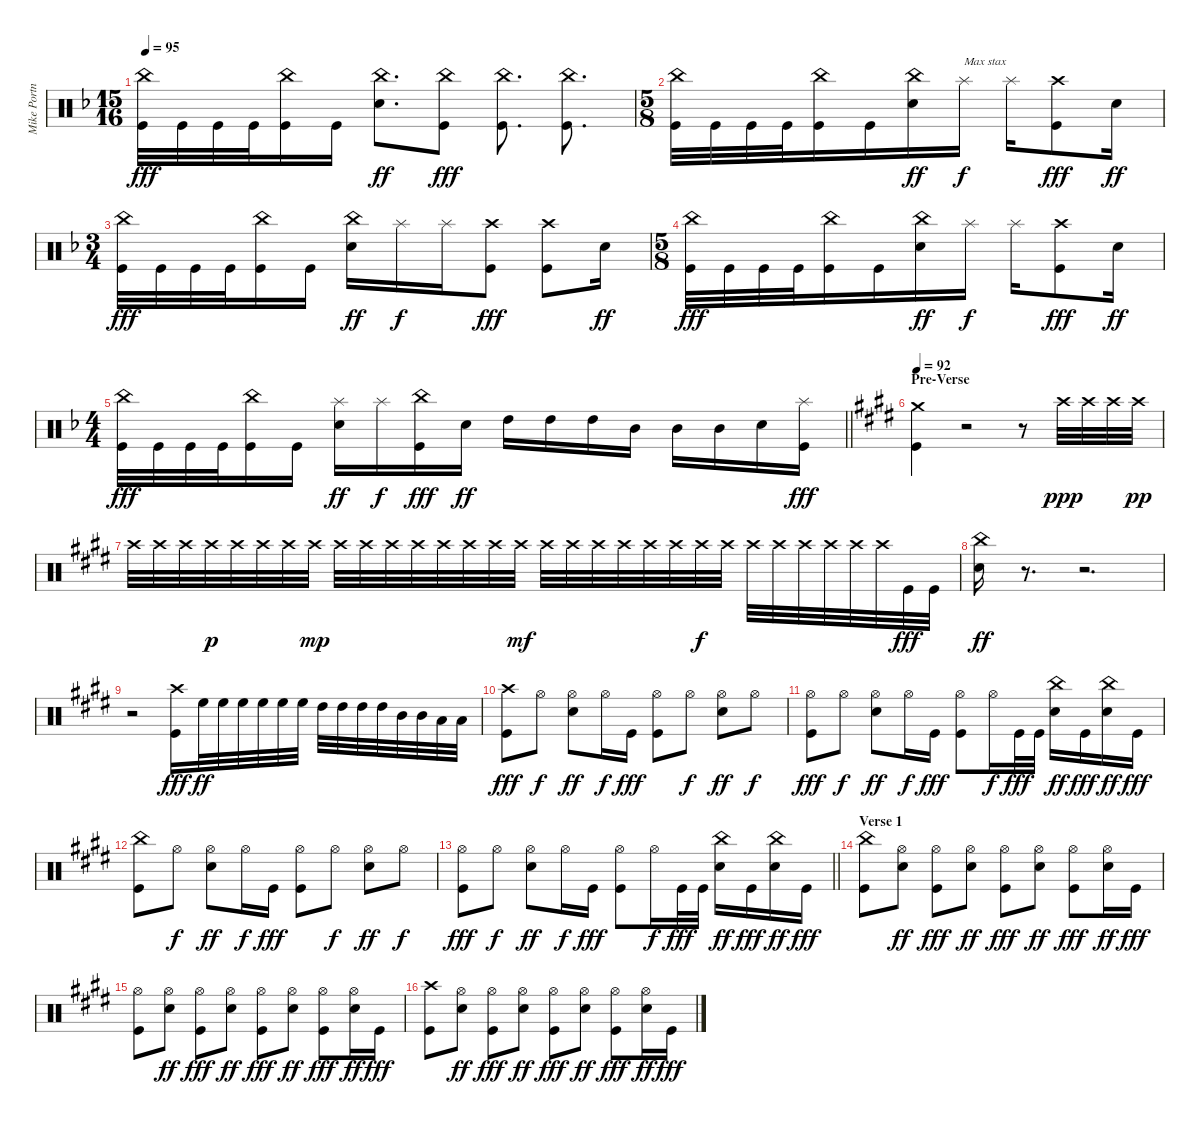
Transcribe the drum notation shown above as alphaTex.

\track ("Mike Portnoy" "Mike Portn") {instrument percussion}
\staff {score}
\articulation defaults
\ts (15 16)
\tempo 95
\clef neutral
\ks f
("China (hit)" "Kick (hit)").32{dy fff} "Kick (hit)".32 "Kick (hit)".32 "Kick (hit)".32 ("China (hit)" "Kick (hit)").16 "Kick (hit)".16 ("China (hit)" "Electric Snare (hit)").8{d dy ff} ("China (hit)" "Kick (hit)").8{dy fff} ("China (hit)" "Kick (hit)").8{d} ("China (hit)" "Kick (hit)").8{d} |
\ts (5 8)
("China (hit)" "Kick (hit)").32 "Kick (hit)".32 "Kick (hit)".32 "Kick (hit)".32 ("China (hit)" "Kick (hit)").16 "Kick (hit)".16 ("China (hit)" "Electric Snare (hit)").16{dy ff} "Splash (hit)".16{txt "Max stax" dy f} "Splash (hit)".16 ("Crash high (hit)" "Kick (hit)").8{dy fff} "Electric Snare (hit)".16{dy ff} |
\ts (3 4)
("China (hit)" "Kick (hit)").32{dy fff} "Kick (hit)".32 "Kick (hit)".32 "Kick (hit)".32 ("China (hit)" "Kick (hit)").16 "Kick (hit)".16 ("China (hit)" "Electric Snare (hit)").16{dy ff} "Splash (hit)".16{dy f} "Splash (hit)".16 ("Crash high (hit)" "Kick (hit)").8{dy fff} ("Crash high (hit)" "Kick (hit)").8 "Electric Snare (hit)".16{dy ff} |
\ts (5 8)
("China (hit)" "Kick (hit)").32{dy fff} "Kick (hit)".32 "Kick (hit)".32 "Kick (hit)".32 ("China (hit)" "Kick (hit)").16 "Kick (hit)".16 ("China (hit)" "Electric Snare (hit)").16{dy ff} "Splash (hit)".16{dy f} "Splash (hit)".16 ("Crash high (hit)" "Kick (hit)").8{dy fff} "Electric Snare (hit)".16{dy ff} |
\ts (4 4)
\barLineRight lightlight
("China (hit)" "Kick (hit)").32{dy fff} "Kick (hit)".32 "Kick (hit)".32 "Kick (hit)".32 ("China (hit)" "Kick (hit)").16 "Kick (hit)".16 ("Splash (hit)" "Electric Snare (hit)").16{dy ff} "Splash (hit)".16{dy f} ("China (hit)" "Kick (hit)").16{dy fff} "Electric Snare (hit)".16{dy ff} "High Tom (hit)".16 "High Tom (hit)".16 "High Tom (hit)".16 "Mid Tom (hit)".16 "Mid Tom (hit)".16 "Mid Tom (hit)".16 "Electric Snare (hit)".16 ("Splash (hit)" "Kick (hit)").16{dy fff} |
\section ("" "Pre-Verse")
\tempo 92
\ks e
("Crash medium (hit)" "Kick (hit)").4 r.2 r.8 "Crash high (hit)".32{dy ppp} "Crash high (hit)".32 "Crash high (hit)".32 "Crash high (hit)".32{dy pp} |
"Crash high (hit)".32 "Crash high (hit)".32 "Crash high (hit)".32 "Crash high (hit)".32{dy p} "Crash high (hit)".32 "Crash high (hit)".32 "Crash high (hit)".32 "Crash high (hit)".32{dy mp} "Crash high (hit)".32 "Crash high (hit)".32 "Crash high (hit)".32 "Crash high (hit)".32 "Crash high (hit)".32 "Crash high (hit)".32 "Crash high (hit)".32 "Crash high (hit)".32{dy mf} "Crash high (hit)".32 "Crash high (hit)".32 "Crash high (hit)".32 "Crash high (hit)".32 "Crash high (hit)".32 "Crash high (hit)".32 "Crash high (hit)".32{dy f} "Crash high (hit)".32 "Crash high (hit)".32 "Crash high (hit)".32 "Crash high (hit)".32 "Crash high (hit)".32 "Crash high (hit)".32 "Crash high (hit)".32 "Kick (hit)".32{dy fff} "Kick (hit)".32 |
("China (hit)" "Electric Snare (hit)").16{dy ff} r.8{d} r.2{d} |
r.2 ("Crash high (hit)" "Kick (hit)").16{dy fff} "High Floor Tom (hit)".32{dy ff} "High Floor Tom (hit)".32 "High Floor Tom (hit)".32 "High Floor Tom (hit)".32 "High Floor Tom (hit)".32 "High Floor Tom (hit)".32 "High Tom (hit)".32 "High Tom (hit)".32 "High Tom (hit)".32 "High Tom (hit)".32 "Mid Tom (hit)".32 "Mid Tom (hit)".32 "Low Tom (hit)".32 "Low Tom (hit)".32 |
("Crash high (hit)" "Kick (hit)").8{dy fff} "Hi-Hat (open)".8{dy f} ("Hi-Hat (open)" "Electric Snare (hit)").8{dy ff} "Hi-Hat (open)".16{dy f} "Kick (hit)".16{dy fff} ("Hi-Hat (open)" "Kick (hit)").8 "Hi-Hat (open)".8{dy f} ("Hi-Hat (open)" "Electric Snare (hit)").8{dy ff} "Hi-Hat (open)".8{dy f} |
("Hi-Hat (open)" "Kick (hit)").8{dy fff} "Hi-Hat (open)".8{dy f} ("Hi-Hat (open)" "Electric Snare (hit)").8{dy ff} "Hi-Hat (open)".16{dy f} "Kick (hit)".16{dy fff} ("Hi-Hat (open)" "Kick (hit)").8 "Hi-Hat (open)".16{dy f} "Kick (hit)".32{dy fff} "Kick (hit)".32 ("China (hit)" "Electric Snare (hit)").16{dy ff} "Kick (hit)".16{dy fff} ("China (hit)" "Electric Snare (hit)").16{dy ff} "Kick (hit)".16{dy fff} |
("China (hit)" "Kick (hit)").8 "Hi-Hat (open)".8{dy f} ("Hi-Hat (open)" "Electric Snare (hit)").8{dy ff} "Hi-Hat (open)".16{dy f} "Kick (hit)".16{dy fff} ("Hi-Hat (open)" "Kick (hit)").8 "Hi-Hat (open)".8{dy f} ("Hi-Hat (open)" "Electric Snare (hit)").8{dy ff} "Hi-Hat (open)".8{dy f} |
\barLineRight lightlight
("Hi-Hat (open)" "Kick (hit)").8{dy fff} "Hi-Hat (open)".8{dy f} ("Hi-Hat (open)" "Electric Snare (hit)").8{dy ff} "Hi-Hat (open)".16{dy f} "Kick (hit)".16{dy fff} ("Hi-Hat (open)" "Kick (hit)").8 "Hi-Hat (open)".16{dy f} "Kick (hit)".32{dy fff} "Kick (hit)".32 ("China (hit)" "Electric Snare (hit)").16{dy ff} "Kick (hit)".16{dy fff} ("China (hit)" "Electric Snare (hit)").16{dy ff} "Kick (hit)".16{dy fff} |
\section ("" "Verse 1")
("China (hit)" "Kick (hit)").8 ("Hi-Hat (open)" "Electric Snare (hit)").8{dy ff} ("Hi-Hat (open)" "Kick (hit)").8{dy fff} ("Hi-Hat (open)" "Electric Snare (hit)").8{dy ff} ("Hi-Hat (open)" "Kick (hit)").8{dy fff} ("Hi-Hat (open)" "Electric Snare (hit)").8{dy ff} ("Hi-Hat (open)" "Kick (hit)").8{dy fff} ("Hi-Hat (open)" "Electric Snare (hit)").16{dy ff} "Kick (hit)".16{dy fff} |
("Hi-Hat (open)" "Kick (hit)").8 ("Hi-Hat (open)" "Electric Snare (hit)").8{dy ff} ("Hi-Hat (open)" "Kick (hit)").8{dy fff} ("Hi-Hat (open)" "Electric Snare (hit)").8{dy ff} ("Hi-Hat (open)" "Kick (hit)").8{dy fff} ("Hi-Hat (open)" "Electric Snare (hit)").8{dy ff} ("Hi-Hat (open)" "Kick (hit)").8{dy fff} ("Hi-Hat (open)" "Electric Snare (hit)").16{dy ff} "Kick (hit)".16{dy fff} |
("Crash high (hit)" "Kick (hit)").8 ("Hi-Hat (open)" "Electric Snare (hit)").8{dy ff} ("Hi-Hat (open)" "Kick (hit)").8{dy fff} ("Hi-Hat (open)" "Electric Snare (hit)").8{dy ff} ("Hi-Hat (open)" "Kick (hit)").8{dy fff} ("Hi-Hat (open)" "Electric Snare (hit)").8{dy ff} ("Hi-Hat (open)" "Kick (hit)").8{dy fff} ("Hi-Hat (open)" "Electric Snare (hit)").16{dy ff} "Kick (hit)".16{dy fff}
